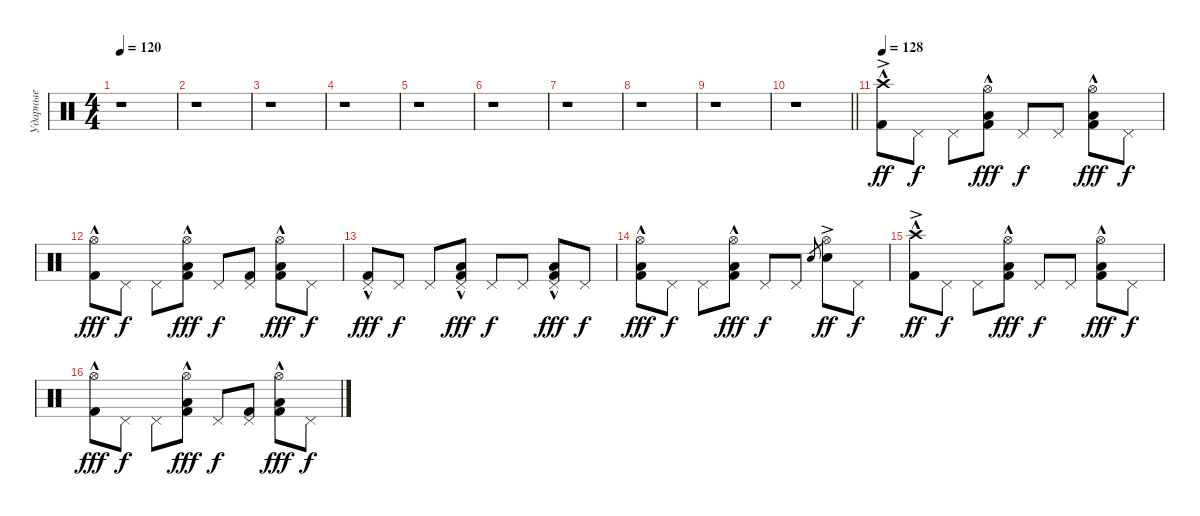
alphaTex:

\track ("Ударные" "Ударные") {instrument percussion}
\staff {score}
\articulation defaults
\ts (4 4)
\tempo 120
\clef neutral
\ks c
r.1{dy ff} |
r.1 |
r.1 |
r.1 |
r.1 |
r.1 |
r.1 |
r.1 |
r.1 |
\barLineRight lightlight
r.1 |
\tempo 128
("Kick (hit) 2"{hac} "Crash high (hit)"{ac}).8 "Pedal Hi-Hat (hit)".8{dy f} "Pedal Hi-Hat (hit)".8 ("Kick (hit) 2"{hac} "Low Floor Tom (hit)" "Hi-Hat (open)").8{dy fff} "Pedal Hi-Hat (hit)".8{dy f} "Pedal Hi-Hat (hit)".8 ("Kick (hit) 2"{hac} "Low Floor Tom (hit)" "Hi-Hat (open)").8{dy fff} "Pedal Hi-Hat (hit)".8{dy f} |
("Kick (hit) 2"{hac} "Hi-Hat (open)").8{dy fff} "Pedal Hi-Hat (hit)".8{dy f} "Pedal Hi-Hat (hit)".8 ("Kick (hit) 2"{hac} "Low Floor Tom (hit)"{hac} "Hi-Hat (open)").8{dy fff} "Pedal Hi-Hat (hit)".8{dy f} ("Kick (hit) 2" "Pedal Hi-Hat (hit)").8 ("Kick (hit) 2"{hac} "Low Floor Tom (hit)"{hac} "Hi-Hat (open)").8{dy fff} "Pedal Hi-Hat (hit)".8{dy f} |
("Kick (hit) 2"{hac} "Pedal Hi-Hat (hit)").8{dy fff} "Pedal Hi-Hat (hit)".8{dy f} "Pedal Hi-Hat (hit)".8 ("Kick (hit) 2"{hac} "Low Floor Tom (hit)"{hac} "Pedal Hi-Hat (hit)").8{dy fff} "Pedal Hi-Hat (hit)".8{dy f} "Pedal Hi-Hat (hit)".8 ("Kick (hit) 2"{hac} "Low Floor Tom (hit)"{hac} "Pedal Hi-Hat (hit)").8{dy fff} "Pedal Hi-Hat (hit)".8{dy f} |
("Kick (hit) 2"{hac} "Low Floor Tom (hit)"{hac} "Hi-Hat (open)").8{dy fff} "Pedal Hi-Hat (hit)".8{dy f} "Pedal Hi-Hat (hit)".8 ("Kick (hit) 2"{hac} "Low Floor Tom (hit)"{hac} "Hi-Hat (open)").8{dy fff} "Pedal Hi-Hat (hit)".8{dy f} "Pedal Hi-Hat (hit)".8 "Snare (hit) 2".8{gr} ("Snare (hit) 2"{ac} "Hi-Hat (open)").8{dy ff} "Pedal Hi-Hat (hit)".8{dy f} |
("Kick (hit) 2"{hac} "Crash high (hit)"{ac}).8{dy ff} "Pedal Hi-Hat (hit)".8{dy f} "Pedal Hi-Hat (hit)".8 ("Kick (hit) 2"{hac} "Low Floor Tom (hit)"{hac} "Hi-Hat (open)").8{dy fff} "Pedal Hi-Hat (hit)".8{dy f} "Pedal Hi-Hat (hit)".8 ("Kick (hit) 2"{hac} "Low Floor Tom (hit)"{hac} "Hi-Hat (open)").8{dy fff} "Pedal Hi-Hat (hit)".8{dy f} |
("Kick (hit) 2"{hac} "Hi-Hat (open)").8{dy fff} "Pedal Hi-Hat (hit)".8{dy f} "Pedal Hi-Hat (hit)".8 ("Kick (hit) 2"{hac} "Low Floor Tom (hit)"{hac} "Hi-Hat (open)").8{dy fff} "Pedal Hi-Hat (hit)".8{dy f} ("Kick (hit) 2" "Pedal Hi-Hat (hit)").8 ("Kick (hit) 2"{hac} "Low Floor Tom (hit)"{hac} "Hi-Hat (open)").8{dy fff} "Pedal Hi-Hat (hit)".8{dy f}
